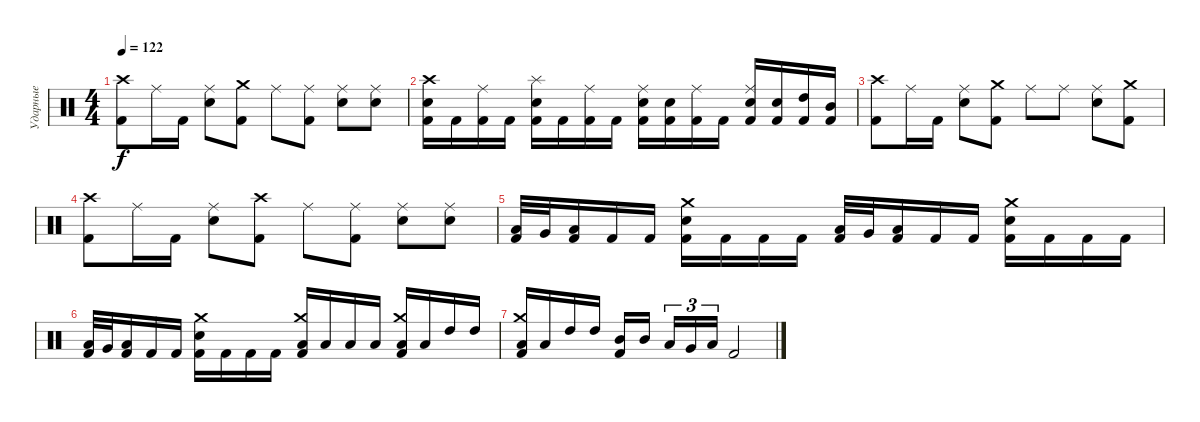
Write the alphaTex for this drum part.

\track ("Ударные" "Ударные") {instrument percussion}
\staff {score}
\articulation defaults
\ts (4 4)
\tempo 122
\clef neutral
\ks c
("Crash high (hit)" "Kick (hit) 2").8{dy f} "Ride (middle)".16 "Kick (hit) 2".16 ("Ride (middle)" "Electric Snare (hit)").8 ("Crash medium (hit)" "Kick (hit) 2").8 "Ride (middle)".8 ("Ride (middle)" "Kick (hit) 2").8 ("Ride (middle)" "Electric Snare (hit)").8 ("Ride (middle)" "Electric Snare (hit)").8 |
("Crash high (hit)" "Electric Snare (hit)" "Kick (hit) 2").16 "Kick (hit) 2".16 ("Ride (middle)" "Kick (hit) 2").16 "Kick (hit) 2".16 ("Splash (hit)" "Electric Snare (hit)" "Kick (hit) 2").16 "Kick (hit) 2".16 ("Ride (middle)" "Kick (hit) 2").16 "Kick (hit) 2".16 ("Ride (middle)" "Electric Snare (hit)" "Kick (hit) 2").16 ("Electric Snare (hit)" "Kick (hit) 2").16 ("Ride (middle)" "Kick (hit) 2").16 "Kick (hit) 2".16 ("Ride (middle)" "Electric Snare (hit)" "Kick (hit) 2").16 ("Electric Snare (hit)" "Kick (hit) 2").16 ("High Tom (hit)" "Kick (hit) 2").16 ("Mid Tom (hit)" "Kick (hit) 2").16 |
("Crash high (hit)" "Kick (hit) 2").8 "Ride (middle)".16 "Kick (hit) 2".16 ("Ride (middle)" "Electric Snare (hit)").8 ("Crash medium (hit)" "Kick (hit) 2").8 "Ride (middle)".8 "Ride (middle)".8 ("Ride (middle)" "Electric Snare (hit)").8 ("Crash medium (hit)" "Kick (hit) 2").8 |
("Crash high (hit)" "Kick (hit) 2").8 "Ride (middle)".16 "Kick (hit) 2".16 ("Ride (middle)" "Electric Snare (hit)").8 ("Crash high (hit)" "Kick (hit) 2").8 "Ride (middle)".8 ("Ride (middle)" "Kick (hit) 2").8 ("Ride (middle)" "Electric Snare (hit)").8 ("Ride (middle)" "Electric Snare (hit)").8 |
("Low Floor Tom (hit)" "Kick (hit) 2").32 "Very Low Tom (hit)".32 ("Low Floor Tom (hit)" "Kick (hit) 2").16 "Kick (hit) 2".16 "Kick (hit) 2".16 ("Crash medium (hit)" "Electric Snare (hit)" "Kick (hit) 2").16 "Kick (hit) 2".16 "Kick (hit) 2".16 "Kick (hit) 2".16 ("Low Floor Tom (hit)" "Kick (hit) 2").32 "Very Low Tom (hit)".32 ("Low Floor Tom (hit)" "Kick (hit) 2").16 "Kick (hit) 2".16 "Kick (hit) 2".16 ("Crash medium (hit)" "Electric Snare (hit)" "Kick (hit) 2").16 "Kick (hit) 2".16 "Kick (hit) 2".16 "Kick (hit) 2".16 |
("Low Floor Tom (hit)" "Kick (hit) 2").32 "Very Low Tom (hit)".32 ("Low Floor Tom (hit)" "Kick (hit) 2").16 "Kick (hit) 2".16 "Kick (hit) 2".16 ("Crash medium (hit)" "Electric Snare (hit)" "Kick (hit) 2").16 "Kick (hit) 2".16 "Kick (hit) 2".16 "Kick (hit) 2".16 ("Crash medium (hit)" "Low Floor Tom (hit)" "Kick (hit) 2").16 "Low Floor Tom (hit)".16 "Low Floor Tom (hit)".16 "Low Floor Tom (hit)".16 ("Crash medium (hit)" "Low Floor Tom (hit)" "Kick (hit) 2").16 "Low Floor Tom (hit)".16 "High Tom (hit)".16 "High Tom (hit)".16 |
("Crash medium (hit)" "Low Floor Tom (hit)" "Kick (hit) 2").16 "Low Floor Tom (hit)".16 "High Tom (hit)".16 "High Tom (hit)".16 ("Mid Tom (hit)" "Kick (hit) 2").16 "Mid Tom (hit)".16{beam splitsecondary} "Low Tom (hit)".16{tu (3 2)} "Very Low Tom (hit)".16{tu (3 2)} "Low Floor Tom (hit)".16{tu (3 2)} "Kick (hit) 2".2
